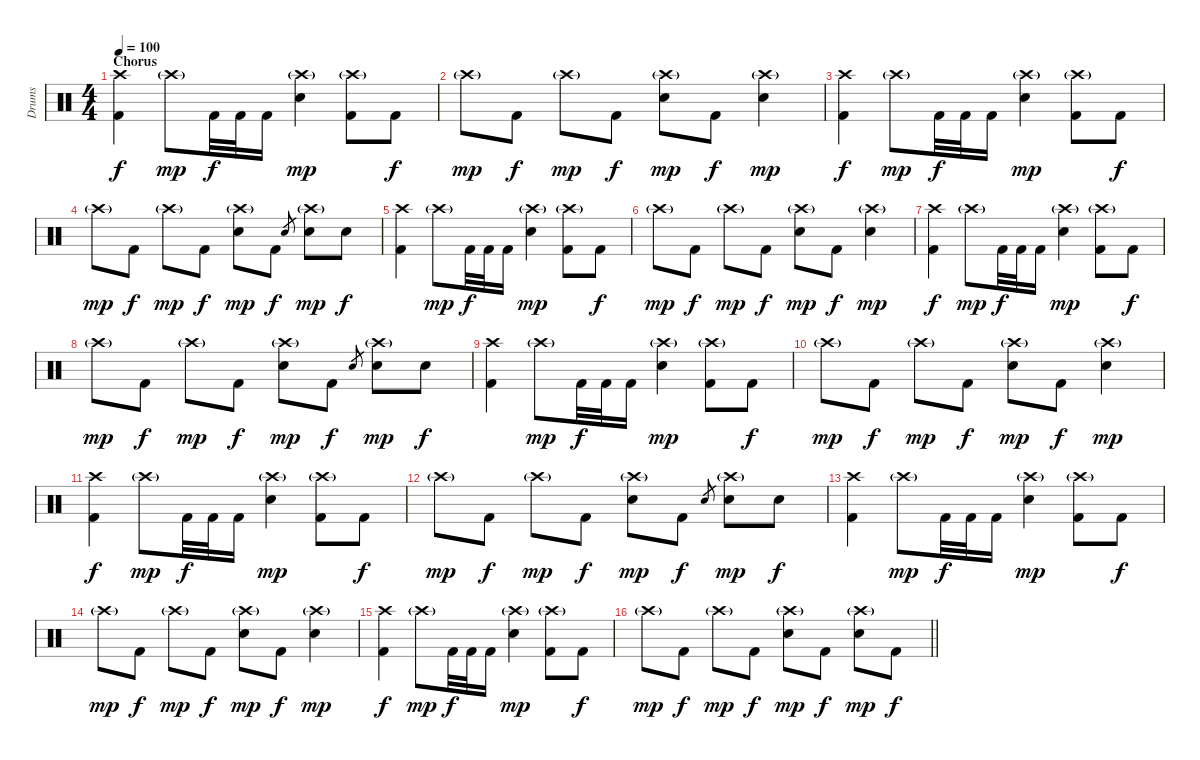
\track ("Drums" "Drums") {instrument percussion}
\staff {score}
\articulation defaults
\ts (4 4)
\section ("" "Chorus")
\tempo 100
\clef neutral
\ks c
("Crash high (hit)" "Kick (hit) 2").4{dy f} "Crash high (hit)"{g}.8{dy mp} "Kick (hit) 2".32{dy f} "Kick (hit) 2".32 "Kick (hit) 2".16 ("Crash high (hit)"{g} "Snare (hit) 2").4{dy mp} ("Crash high (hit)"{g} "Kick (hit) 2").8 "Kick (hit) 2".8{dy f} |
"Crash high (hit)"{g}.8{dy mp} "Kick (hit) 2".8{dy f} "Crash high (hit)"{g}.8{dy mp} "Kick (hit) 2".8{dy f} ("Crash high (hit)"{g} "Snare (hit) 2").8{dy mp} "Kick (hit) 2".8{dy f} ("Crash high (hit)"{g} "Snare (hit) 2").4{dy mp} |
("Crash high (hit)" "Kick (hit) 2").4{dy f} "Crash high (hit)"{g}.8{dy mp} "Kick (hit) 2".32{dy f} "Kick (hit) 2".32 "Kick (hit) 2".16 ("Crash high (hit)"{g} "Snare (hit) 2").4{dy mp} ("Crash high (hit)"{g} "Kick (hit) 2").8 "Kick (hit) 2".8{dy f} |
"Crash high (hit)"{g}.8{dy mp} "Kick (hit) 2".8{dy f} "Crash high (hit)"{g}.8{dy mp} "Kick (hit) 2".8{dy f} ("Crash high (hit)"{g} "Snare (hit) 2").8{dy mp} "Kick (hit) 2".8{dy f} "Snare (hit) 2".8{gr} ("Crash high (hit)"{g} "Snare (hit) 2").8{dy mp} "Snare (hit) 2".8{dy f} |
("Crash high (hit)" "Kick (hit) 2").4 "Crash high (hit)"{g}.8{dy mp} "Kick (hit) 2".32{dy f} "Kick (hit) 2".32 "Kick (hit) 2".16 ("Crash high (hit)"{g} "Snare (hit) 2").4{dy mp} ("Crash high (hit)"{g} "Kick (hit) 2").8 "Kick (hit) 2".8{dy f} |
"Crash high (hit)"{g}.8{dy mp} "Kick (hit) 2".8{dy f} "Crash high (hit)"{g}.8{dy mp} "Kick (hit) 2".8{dy f} ("Crash high (hit)"{g} "Snare (hit) 2").8{dy mp} "Kick (hit) 2".8{dy f} ("Crash high (hit)"{g} "Snare (hit) 2").4{dy mp} |
("Crash high (hit)" "Kick (hit) 2").4{dy f} "Crash high (hit)"{g}.8{dy mp} "Kick (hit) 2".32{dy f} "Kick (hit) 2".32 "Kick (hit) 2".16 ("Crash high (hit)"{g} "Snare (hit) 2").4{dy mp} ("Crash high (hit)"{g} "Kick (hit) 2").8 "Kick (hit) 2".8{dy f} |
"Crash high (hit)"{g}.8{dy mp} "Kick (hit) 2".8{dy f} "Crash high (hit)"{g}.8{dy mp} "Kick (hit) 2".8{dy f} ("Crash high (hit)"{g} "Snare (hit) 2").8{dy mp} "Kick (hit) 2".8{dy f} "Snare (hit) 2".8{gr} ("Crash high (hit)"{g} "Snare (hit) 2").8{dy mp} "Snare (hit) 2".8{dy f} |
("Crash high (hit)" "Kick (hit) 2").4 "Crash high (hit)"{g}.8{dy mp} "Kick (hit) 2".32{dy f} "Kick (hit) 2".32 "Kick (hit) 2".16 ("Crash high (hit)"{g} "Snare (hit) 2").4{dy mp} ("Crash high (hit)"{g} "Kick (hit) 2").8 "Kick (hit) 2".8{dy f} |
"Crash high (hit)"{g}.8{dy mp} "Kick (hit) 2".8{dy f} "Crash high (hit)"{g}.8{dy mp} "Kick (hit) 2".8{dy f} ("Crash high (hit)"{g} "Snare (hit) 2").8{dy mp} "Kick (hit) 2".8{dy f} ("Crash high (hit)"{g} "Snare (hit) 2").4{dy mp} |
("Crash high (hit)" "Kick (hit) 2").4{dy f} "Crash high (hit)"{g}.8{dy mp} "Kick (hit) 2".32{dy f} "Kick (hit) 2".32 "Kick (hit) 2".16 ("Crash high (hit)"{g} "Snare (hit) 2").4{dy mp} ("Crash high (hit)"{g} "Kick (hit) 2").8 "Kick (hit) 2".8{dy f} |
"Crash high (hit)"{g}.8{dy mp} "Kick (hit) 2".8{dy f} "Crash high (hit)"{g}.8{dy mp} "Kick (hit) 2".8{dy f} ("Crash high (hit)"{g} "Snare (hit) 2").8{dy mp} "Kick (hit) 2".8{dy f} "Snare (hit) 2".8{gr} ("Crash high (hit)"{g} "Snare (hit) 2").8{dy mp} "Snare (hit) 2".8{dy f} |
("Crash high (hit)" "Kick (hit) 2").4 "Crash high (hit)"{g}.8{dy mp} "Kick (hit) 2".32{dy f} "Kick (hit) 2".32 "Kick (hit) 2".16 ("Crash high (hit)"{g} "Snare (hit) 2").4{dy mp} ("Crash high (hit)"{g} "Kick (hit) 2").8 "Kick (hit) 2".8{dy f} |
"Crash high (hit)"{g}.8{dy mp} "Kick (hit) 2".8{dy f} "Crash high (hit)"{g}.8{dy mp} "Kick (hit) 2".8{dy f} ("Crash high (hit)"{g} "Snare (hit) 2").8{dy mp} "Kick (hit) 2".8{dy f} ("Crash high (hit)"{g} "Snare (hit) 2").4{dy mp} |
("Crash high (hit)" "Kick (hit) 2").4{dy f} "Crash high (hit)"{g}.8{dy mp} "Kick (hit) 2".32{dy f} "Kick (hit) 2".32 "Kick (hit) 2".16 ("Crash high (hit)"{g} "Snare (hit) 2").4{dy mp} ("Crash high (hit)"{g} "Kick (hit) 2").8 "Kick (hit) 2".8{dy f} |
\barLineRight lightlight "Crash high (hit)"{g}.8{dy mp} "Kick (hit) 2".8{dy f} "Crash high (hit)"{g}.8{dy mp} "Kick (hit) 2".8{dy f}
("Crash high (hit)"{g} "Snare (hit) 2").8{dy mp} "Kick (hit) 2".8{dy f} ("Crash high (hit)"{g} "Snare (hit) 2").8{dy mp} "Kick (hit) 2".8{dy f}
